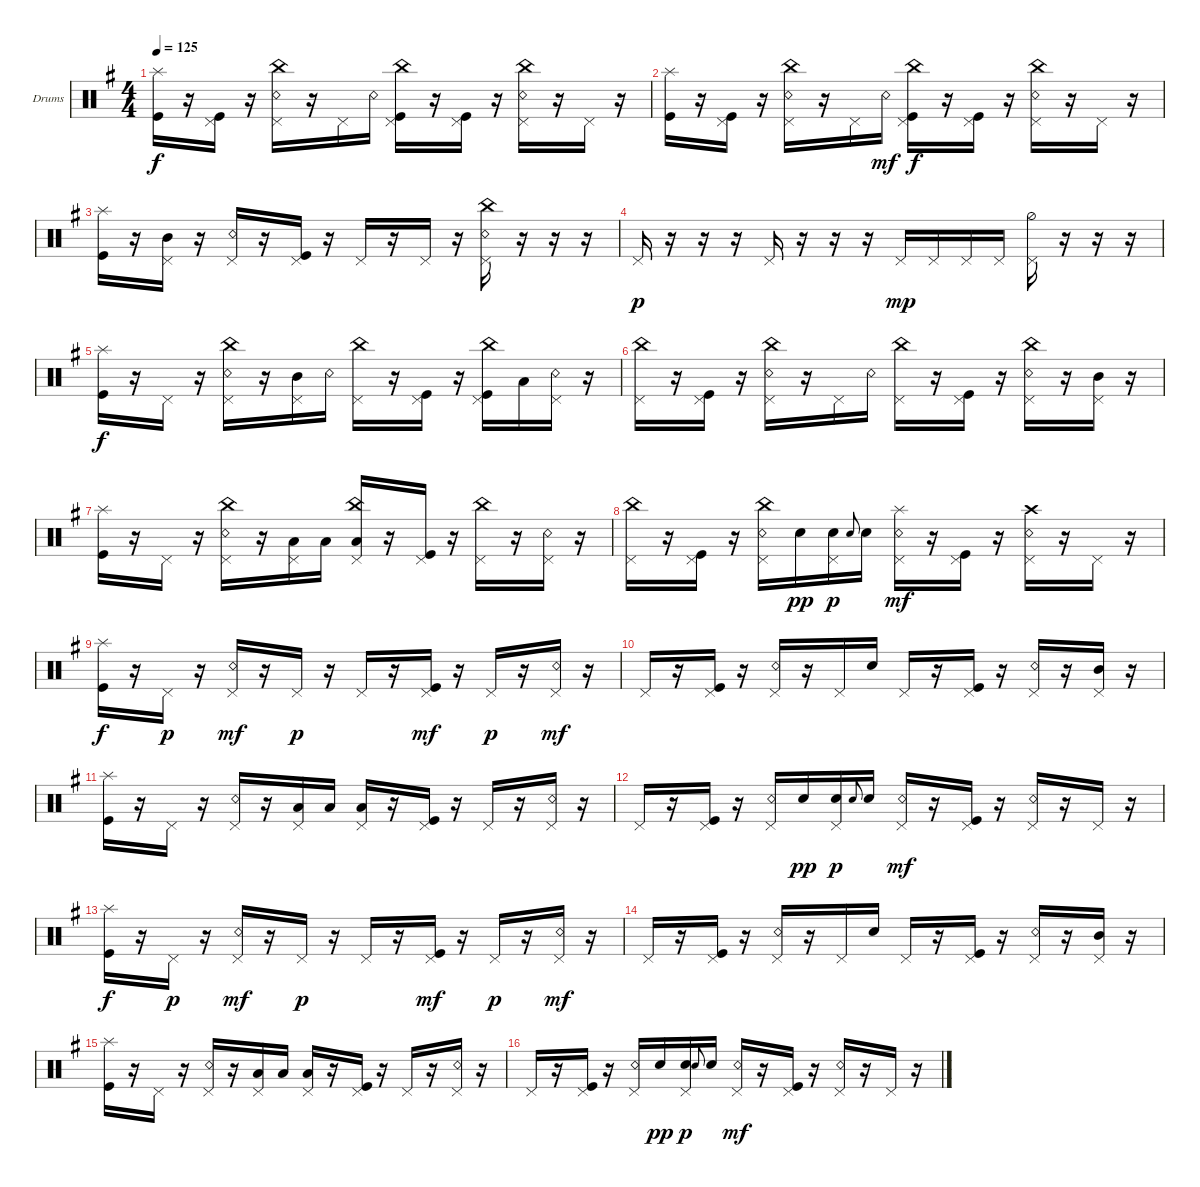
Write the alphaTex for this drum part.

\bracketExtendMode groupsimilarinstruments
\firstSystemTrackNameOrientation horizontal
\otherSystemsTrackNameOrientation horizontal
\track ("Drumkit" "Drums") {instrument percussion}
\staff {score}
\articulation defaults
\ts (4 4)
\tempo 125
\clef neutral
\ks g
("Kick (hit)" "Splash (hit)").16{dy f} r.16 ("Pedal Hi-Hat (hit)" "Kick (hit)").16 r.16 ("Pedal Hi-Hat (hit)" "Snare (rim shot)" "China (hit)").16 r.16 "Pedal Hi-Hat (hit)".16 "Snare (rim shot)".16 ("Pedal Hi-Hat (hit)" "China (hit)" "Kick (hit)").16 r.16 ("Pedal Hi-Hat (hit)" "Kick (hit)").16 r.16 ("Pedal Hi-Hat (hit)" "China (hit)" "Snare (rim shot)").16 r.16 "Pedal Hi-Hat (hit)".16 r.16 |
("Kick (hit)" "Splash (hit)").16 r.16 ("Pedal Hi-Hat (hit)" "Kick (hit)").16 r.16 ("Pedal Hi-Hat (hit)" "Snare (rim shot)" "China (hit)").16 r.16 "Pedal Hi-Hat (hit)".16 "Snare (rim shot)".16{dy mf} ("Pedal Hi-Hat (hit)" "China (hit)" "Kick (hit)").16{dy f} r.16 ("Pedal Hi-Hat (hit)" "Kick (hit)").16 r.16 ("Pedal Hi-Hat (hit)" "China (hit)" "Snare (rim shot)").16 r.16 "Pedal Hi-Hat (hit)".16 r.16 |
("Kick (hit)" "Splash (hit)").16 r.16 ("Pedal Hi-Hat (hit)" "Mid Tom (hit)").16 r.16 ("Pedal Hi-Hat (hit)" "Snare (rim shot)").16 r.16 ("Pedal Hi-Hat (hit)" "Kick (hit)").16 r.16 "Pedal Hi-Hat (hit)".16 r.16 "Pedal Hi-Hat (hit)".16 r.16 ("Pedal Hi-Hat (hit)" "China (hit)" "Snare (rim shot)").16 r.16 r.16 r.16 |
"Pedal Hi-Hat (hit)".16{dy p} r.16 r.16 r.16 "Pedal Hi-Hat (hit)".16 r.16 r.16 r.16 "Pedal Hi-Hat (hit)".16{dy mp} "Pedal Hi-Hat (hit)".16 "Pedal Hi-Hat (hit)".16 "Pedal Hi-Hat (hit)".16 ("Pedal Hi-Hat (hit)" "Hi-Hat (half)").16 r.16 r.16 r.16 |
("Kick (hit)" "Splash (hit)").16{dy f} r.16 "Pedal Hi-Hat (hit)".16 r.16 ("Pedal Hi-Hat (hit)" "Snare (rim shot)" "China (hit)").16 r.16 ("Pedal Hi-Hat (hit)" "Mid Tom (hit)").16 "Snare (rim shot)".16 ("Pedal Hi-Hat (hit)" "China (hit)").16 r.16 ("Pedal Hi-Hat (hit)" "Kick (hit)").16 r.16 ("Pedal Hi-Hat (hit)" "Kick (hit)" "China (hit)").16 "Low Tom (hit)".16 ("Pedal Hi-Hat (hit)" "Snare (rim shot)").16 r.16 |
("Pedal Hi-Hat (hit)" "China (hit)").16 r.16 ("Pedal Hi-Hat (hit)" "Kick (hit)").16 r.16 ("Pedal Hi-Hat (hit)" "Snare (rim shot)" "China (hit)").16 r.16 "Pedal Hi-Hat (hit)".16 "Snare (rim shot)".16 ("Pedal Hi-Hat (hit)" "China (hit)").16 r.16 ("Pedal Hi-Hat (hit)" "Kick (hit)").16 r.16 ("Pedal Hi-Hat (hit)" "Snare (rim shot)" "China (hit)").16 r.16 ("Pedal Hi-Hat (hit)" "Mid Tom (hit)").16 r.16 |
("Kick (hit)" "Splash (hit)").16 r.16 "Pedal Hi-Hat (hit)".16 r.16 ("Pedal Hi-Hat (hit)" "Snare (rim shot)" "China (hit)").16 r.16 ("Pedal Hi-Hat (hit)" "Low Tom (hit)").16 "Low Tom (hit)".16 ("Pedal Hi-Hat (hit)" "Low Tom (hit)" "China (hit)").16 r.16 ("Pedal Hi-Hat (hit)" "Kick (hit)").16 r.16 ("Pedal Hi-Hat (hit)" "China (hit)").16 r.16 ("Pedal Hi-Hat (hit)" "Snare (rim shot)").16 r.16 |
("Pedal Hi-Hat (hit)" "China (hit)").16 r.16 ("Pedal Hi-Hat (hit)" "Kick (hit)").16 r.16 ("Pedal Hi-Hat (hit)" "Snare (rim shot)" "China (hit)").16 "Snare (hit) 2".16{dy pp} ("Pedal Hi-Hat (hit)" "Snare (hit) 2").16{dy p} "Snare (hit) 2".8{gr onbeat} "Snare (hit) 2".16 ("Pedal Hi-Hat (hit)" "Snare (rim shot)" "Splash (hit)").16{dy mf} r.16 ("Pedal Hi-Hat (hit)" "Kick (hit)").16 r.16 ("Pedal Hi-Hat (hit)" "Snare (rim shot)" "Crash high (hit)").16 r.16 "Pedal Hi-Hat (hit)".16 r.16 |
("Kick (hit)" "Splash (hit)").16{dy f} r.16 "Pedal Hi-Hat (hit)".16{dy p} r.16 ("Pedal Hi-Hat (hit)" "Snare (rim shot)").16{dy mf} r.16 "Pedal Hi-Hat (hit)".16{dy p} r.16 "Pedal Hi-Hat (hit)".16 r.16 ("Pedal Hi-Hat (hit)" "Kick (hit)").16{dy mf} r.16 "Pedal Hi-Hat (hit)".16{dy p} r.16 ("Pedal Hi-Hat (hit)" "Snare (rim shot)").16{dy mf} r.16 |
"Pedal Hi-Hat (hit)".16 r.16 ("Pedal Hi-Hat (hit)" "Kick (hit)").16 r.16 ("Pedal Hi-Hat (hit)" "Snare (rim shot)").16 r.16 "Pedal Hi-Hat (hit)".16 "Snare (hit) 2".16 "Pedal Hi-Hat (hit)".16 r.16 ("Pedal Hi-Hat (hit)" "Kick (hit)").16 r.16 ("Pedal Hi-Hat (hit)" "Snare (rim shot)").16 r.16 ("Pedal Hi-Hat (hit)" "Mid Tom (hit)").16 r.16 |
("Kick (hit)" "Splash (hit)").16 r.16 "Pedal Hi-Hat (hit)".16 r.16 ("Pedal Hi-Hat (hit)" "Snare (rim shot)").16 r.16 ("Pedal Hi-Hat (hit)" "Low Tom (hit)").16 "Low Tom (hit)".16 ("Pedal Hi-Hat (hit)" "Low Tom (hit)").16 r.16 ("Pedal Hi-Hat (hit)" "Kick (hit)").16 r.16 "Pedal Hi-Hat (hit)".16 r.16 ("Pedal Hi-Hat (hit)" "Snare (rim shot)").16 r.16 |
"Pedal Hi-Hat (hit)".16 r.16 ("Pedal Hi-Hat (hit)" "Kick (hit)").16 r.16 ("Pedal Hi-Hat (hit)" "Snare (rim shot)").16 "Snare (hit) 2".16{dy pp} ("Pedal Hi-Hat (hit)" "Snare (hit) 2").16{dy p} "Snare (hit) 2".8{gr onbeat} "Snare (hit) 2".16 ("Pedal Hi-Hat (hit)" "Snare (rim shot)").16{dy mf} r.16 ("Pedal Hi-Hat (hit)" "Kick (hit)").16 r.16 ("Pedal Hi-Hat (hit)" "Snare (rim shot)").16 r.16 "Pedal Hi-Hat (hit)".16 r.16 |
("Kick (hit)" "Splash (hit)").16{dy f} r.16 "Pedal Hi-Hat (hit)".16{dy p} r.16 ("Pedal Hi-Hat (hit)" "Snare (rim shot)").16{dy mf} r.16 "Pedal Hi-Hat (hit)".16{dy p} r.16 "Pedal Hi-Hat (hit)".16 r.16 ("Pedal Hi-Hat (hit)" "Kick (hit)").16{dy mf} r.16 "Pedal Hi-Hat (hit)".16{dy p} r.16 ("Pedal Hi-Hat (hit)" "Snare (rim shot)").16{dy mf} r.16 |
"Pedal Hi-Hat (hit)".16 r.16 ("Pedal Hi-Hat (hit)" "Kick (hit)").16 r.16 ("Pedal Hi-Hat (hit)" "Snare (rim shot)").16 r.16 "Pedal Hi-Hat (hit)".16 "Snare (hit) 2".16 "Pedal Hi-Hat (hit)".16 r.16 ("Pedal Hi-Hat (hit)" "Kick (hit)").16 r.16 ("Pedal Hi-Hat (hit)" "Snare (rim shot)").16 r.16 ("Pedal Hi-Hat (hit)" "Mid Tom (hit)").16 r.16 |
("Kick (hit)" "Splash (hit)").16 r.16 "Pedal Hi-Hat (hit)".16 r.16 ("Pedal Hi-Hat (hit)" "Snare (rim shot)").16 r.16 ("Pedal Hi-Hat (hit)" "Low Tom (hit)").16 "Low Tom (hit)".16 ("Pedal Hi-Hat (hit)" "Low Tom (hit)").16 r.16 ("Pedal Hi-Hat (hit)" "Kick (hit)").16 r.16 "Pedal Hi-Hat (hit)".16 r.16 ("Pedal Hi-Hat (hit)" "Snare (rim shot)").16 r.16 |
"Pedal Hi-Hat (hit)".16 r.16 ("Pedal Hi-Hat (hit)" "Kick (hit)").16 r.16 ("Pedal Hi-Hat (hit)" "Snare (rim shot)").16 "Snare (hit) 2".16{dy pp} ("Pedal Hi-Hat (hit)" "Snare (hit) 2").16{dy p} "Snare (hit) 2".8{gr onbeat} "Snare (hit) 2".16 ("Pedal Hi-Hat (hit)" "Snare (rim shot)").16{dy mf} r.16 ("Pedal Hi-Hat (hit)" "Kick (hit)").16 r.16 ("Pedal Hi-Hat (hit)" "Snare (rim shot)").16 r.16 "Pedal Hi-Hat (hit)".16 r.16
